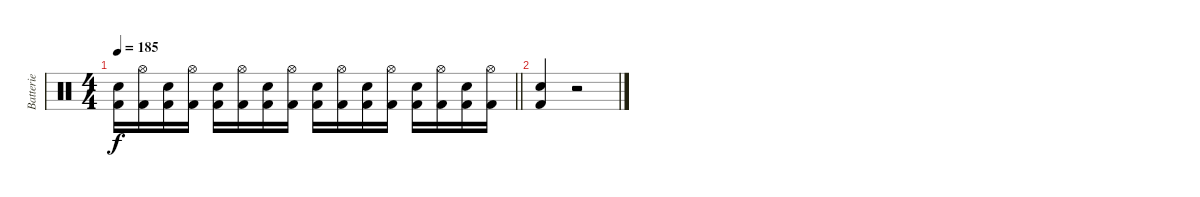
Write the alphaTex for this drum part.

\track ("Batterie" "Batterie") {instrument percussion}
\staff {score}
\articulation defaults
\ts (4 4)
\tempo 185
\clef neutral
\barLineRight lightlight
\ks c
("Electric Snare (hit)" "Kick (hit) 2").16{dy f} ("Hi-Hat (open)" "Kick (hit) 2").16 ("Electric Snare (hit)" "Kick (hit) 2").16 ("Hi-Hat (open)" "Kick (hit) 2").16 ("Electric Snare (hit)" "Kick (hit) 2").16 ("Hi-Hat (open)" "Kick (hit) 2").16 ("Electric Snare (hit)" "Kick (hit) 2").16 ("Hi-Hat (open)" "Kick (hit) 2").16 ("Electric Snare (hit)" "Kick (hit) 2").16 ("Hi-Hat (open)" "Kick (hit) 2").16 ("Electric Snare (hit)" "Kick (hit) 2").16 ("Hi-Hat (open)" "Kick (hit) 2").16 ("Electric Snare (hit)" "Kick (hit) 2").16 ("Hi-Hat (open)" "Kick (hit) 2").16 ("Electric Snare (hit)" "Kick (hit) 2").16 ("Hi-Hat (open)" "Kick (hit) 2").16 |
("Electric Snare (hit)" "Kick (hit) 2").4 r.2
